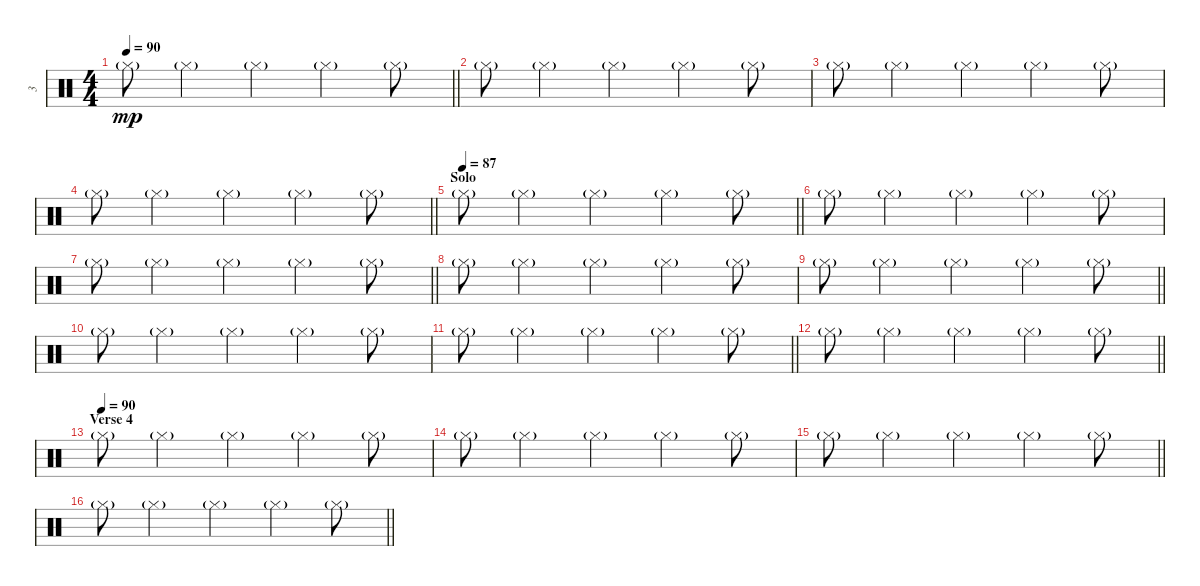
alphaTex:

\track ("3" "3") {instrument percussion}
\staff {score}
\articulation defaults
\ts (4 4)
\tempo 90
\clef neutral
\barLineRight lightlight
\ks c "Hi-Hat (closed)"{g}.8{dy mp} "Hi-Hat (closed)"{g}.4 "Hi-Hat (closed)"{g}.4 "Hi-Hat (closed)"{g}.4 "Hi-Hat (closed)"{g}.8
|
"Hi-Hat (closed)"{g}.8 "Hi-Hat (closed)"{g}.4 "Hi-Hat (closed)"{g}.4 "Hi-Hat (closed)"{g}.4 "Hi-Hat (closed)"{g}.8 |
"Hi-Hat (closed)"{g}.8 "Hi-Hat (closed)"{g}.4 "Hi-Hat (closed)"{g}.4 "Hi-Hat (closed)"{g}.4 "Hi-Hat (closed)"{g}.8 |
\barLineRight lightlight "Hi-Hat (closed)"{g}.8 "Hi-Hat (closed)"{g}.4 "Hi-Hat (closed)"{g}.4 "Hi-Hat (closed)"{g}.4 "Hi-Hat (closed)"{g}.8
|
\section ("" "Solo")
\tempo 87
\barLineRight lightlight "Hi-Hat (closed)"{g}.8 "Hi-Hat (closed)"{g}.4 "Hi-Hat (closed)"{g}.4 "Hi-Hat (closed)"{g}.4 "Hi-Hat (closed)"{g}.8
|
"Hi-Hat (closed)"{g}.8 "Hi-Hat (closed)"{g}.4 "Hi-Hat (closed)"{g}.4 "Hi-Hat (closed)"{g}.4 "Hi-Hat (closed)"{g}.8 |
\barLineRight lightlight "Hi-Hat (closed)"{g}.8 "Hi-Hat (closed)"{g}.4 "Hi-Hat (closed)"{g}.4 "Hi-Hat (closed)"{g}.4 "Hi-Hat (closed)"{g}.8
|
"Hi-Hat (closed)"{g}.8 "Hi-Hat (closed)"{g}.4 "Hi-Hat (closed)"{g}.4 "Hi-Hat (closed)"{g}.4 "Hi-Hat (closed)"{g}.8 |
\barLineRight lightlight "Hi-Hat (closed)"{g}.8 "Hi-Hat (closed)"{g}.4 "Hi-Hat (closed)"{g}.4 "Hi-Hat (closed)"{g}.4 "Hi-Hat (closed)"{g}.8
|
"Hi-Hat (closed)"{g}.8 "Hi-Hat (closed)"{g}.4 "Hi-Hat (closed)"{g}.4 "Hi-Hat (closed)"{g}.4 "Hi-Hat (closed)"{g}.8 |
\barLineRight lightlight "Hi-Hat (closed)"{g}.8 "Hi-Hat (closed)"{g}.4 "Hi-Hat (closed)"{g}.4 "Hi-Hat (closed)"{g}.4 "Hi-Hat (closed)"{g}.8
|
\barLineRight lightlight "Hi-Hat (closed)"{g}.8 "Hi-Hat (closed)"{g}.4 "Hi-Hat (closed)"{g}.4 "Hi-Hat (closed)"{g}.4 "Hi-Hat (closed)"{g}.8
|
\section ("" "Verse 4")
\tempo (90)
"Hi-Hat (closed)"{g}.8 "Hi-Hat (closed)"{g}.4 "Hi-Hat (closed)"{g}.4 "Hi-Hat (closed)"{g}.4 "Hi-Hat (closed)"{g}.8 |
"Hi-Hat (closed)"{g}.8 "Hi-Hat (closed)"{g}.4 "Hi-Hat (closed)"{g}.4 "Hi-Hat (closed)"{g}.4 "Hi-Hat (closed)"{g}.8 |
\barLineRight lightlight "Hi-Hat (closed)"{g}.8 "Hi-Hat (closed)"{g}.4 "Hi-Hat (closed)"{g}.4 "Hi-Hat (closed)"{g}.4 "Hi-Hat (closed)"{g}.8
|
\barLineRight lightlight "Hi-Hat (closed)"{g}.8 "Hi-Hat (closed)"{g}.4 "Hi-Hat (closed)"{g}.4 "Hi-Hat (closed)"{g}.4 "Hi-Hat (closed)"{g}.8
